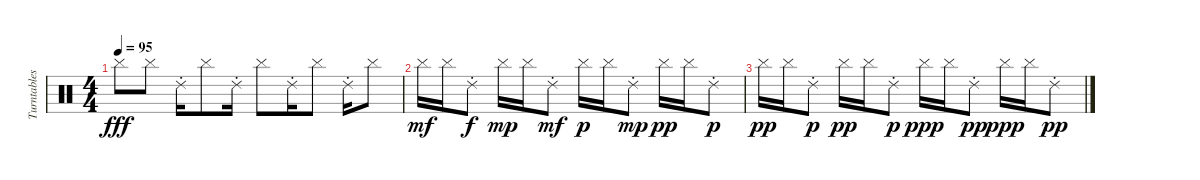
\track ("Turntables - Joe Hahn" "Turntables") {instrument percussion}
\staff {score}
\articulation defaults
\ts (4 4)
\tempo 95
\clef neutral
\ks c "Cymbal (hit)".8{dy fff} "Cymbal (hit)".8 "Ride (choke) 2".16 "Cymbal (hit)".8 "Ride (choke) 2".16 "Cymbal (hit)".8 "Ride (choke) 2".16 "Cymbal (hit)".8 "Ride (choke) 2".16 "Cymbal (hit)".8
|
"Cymbal (hit)".16{dy mf} "Cymbal (hit)".16 "Ride (choke) 2".8{dy f} "Cymbal (hit)".16{dy mp} "Cymbal (hit)".16 "Ride (choke) 2".8{dy mf} "Cymbal (hit)".16{dy p} "Cymbal (hit)".16 "Ride (choke) 2".8{dy mp} "Cymbal (hit)".16{dy pp} "Cymbal (hit)".16 "Ride (choke) 2".8{dy p} |
"Cymbal (hit)".16{dy pp} "Cymbal (hit)".16 "Ride (choke) 2".8{dy p} "Cymbal (hit)".16{dy pp} "Cymbal (hit)".16 "Ride (choke) 2".8{dy p} "Cymbal (hit)".16{dy ppp} "Cymbal (hit)".16 "Ride (choke) 2".8{dy pp} "Cymbal (hit)".16{dy ppp} "Cymbal (hit)".16 "Ride (choke) 2".8{dy pp}
